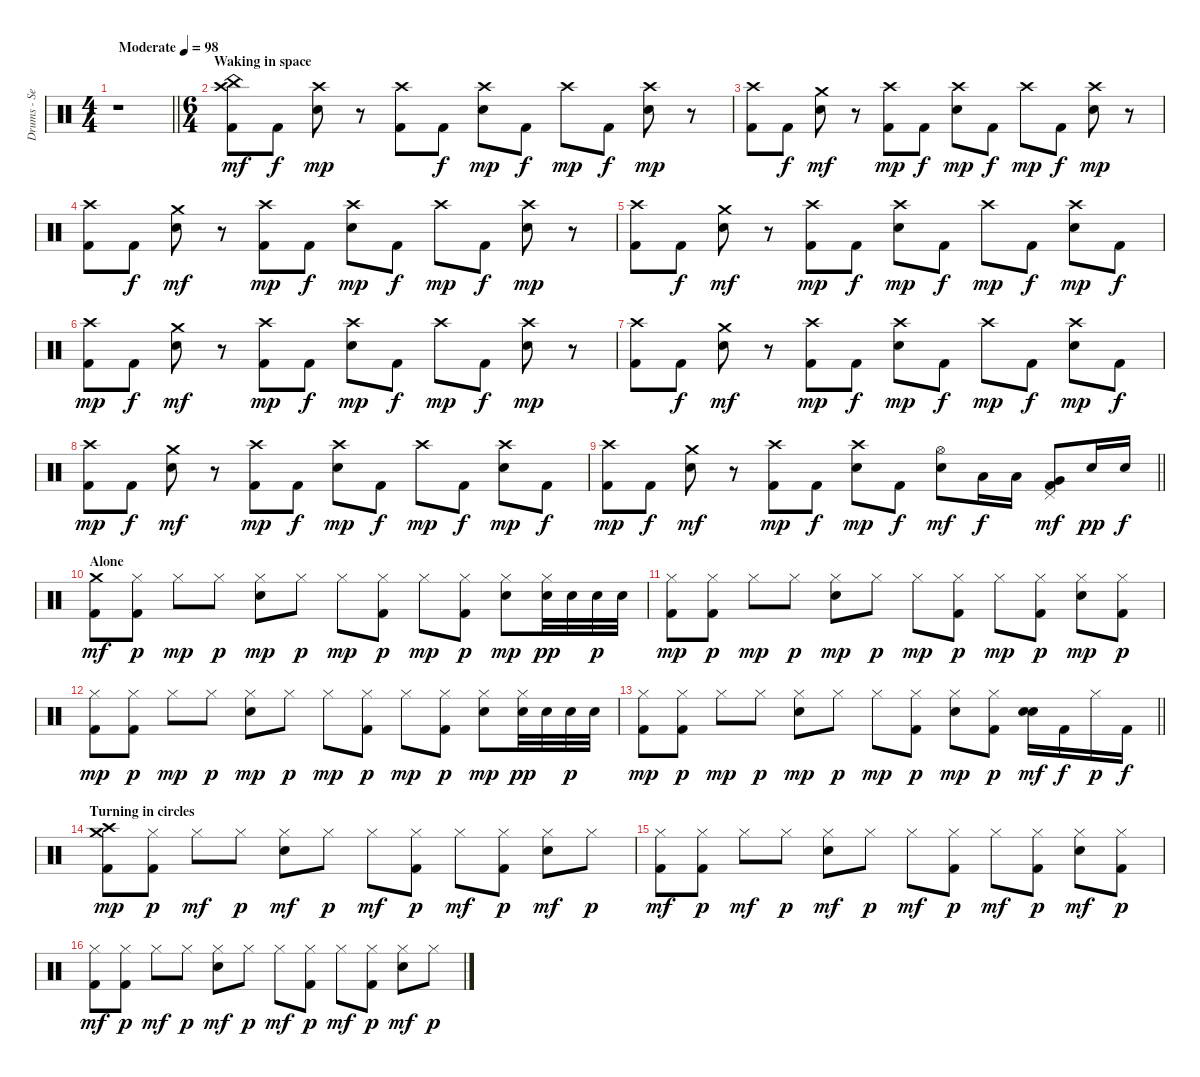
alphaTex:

\track ("Drums - Sean Kinney" "Drums - Se") {instrument percussion}
\staff {score}
\articulation defaults
\ts (4 4)
\tempo (98 "Moderate")
\clef neutral
\barLineRight lightlight
\ks c
r.1{dy mf} |
\ts (6 4)
\section ("" "Waking in space")
("China (hit)" "Crash high (hit)" "Kick (hit) 2").8 "Kick (hit) 2".8{dy f} ("Crash high (hit)" "Snare (hit) 2").8{dy mp} r.8 ("Crash high (hit)" "Kick (hit) 2").8 "Kick (hit) 2".8{dy f} ("Crash high (hit)" "Snare (hit) 2").8{dy mp} "Kick (hit) 2".8{dy f} "Crash high (hit)".8{dy mp} "Kick (hit) 2".8{dy f} ("Crash high (hit)" "Snare (hit) 2").8{dy mp} r.8 |
("Crash high (hit)" "Kick (hit) 2").8 "Kick (hit) 2".8{dy f} ("Crash medium (hit)" "Snare (hit) 2").8{dy mf} r.8 ("Crash high (hit)" "Kick (hit) 2").8{dy mp} "Kick (hit) 2".8{dy f} ("Crash high (hit)" "Snare (hit) 2").8{dy mp} "Kick (hit) 2".8{dy f} "Crash high (hit)".8{dy mp} "Kick (hit) 2".8{dy f} ("Crash high (hit)" "Snare (hit) 2").8{dy mp} r.8 |
("Crash high (hit)" "Kick (hit) 2").8 "Kick (hit) 2".8{dy f} ("Crash medium (hit)" "Snare (hit) 2").8{dy mf} r.8 ("Crash high (hit)" "Kick (hit) 2").8{dy mp} "Kick (hit) 2".8{dy f} ("Crash high (hit)" "Snare (hit) 2").8{dy mp} "Kick (hit) 2".8{dy f} "Crash high (hit)".8{dy mp} "Kick (hit) 2".8{dy f} ("Crash high (hit)" "Snare (hit) 2").8{dy mp} r.8 |
("Crash high (hit)" "Kick (hit) 2").8 "Kick (hit) 2".8{dy f} ("Crash medium (hit)" "Snare (hit) 2").8{dy mf} r.8 ("Crash high (hit)" "Kick (hit) 2").8{dy mp} "Kick (hit) 2".8{dy f} ("Crash high (hit)" "Snare (hit) 2").8{dy mp} "Kick (hit) 2".8{dy f} "Crash high (hit)".8{dy mp} "Kick (hit) 2".8{dy f} ("Crash high (hit)" "Snare (hit) 2").8{dy mp} "Kick (hit) 2".8{dy f} |
("Crash high (hit)" "Kick (hit) 2").8{dy mp} "Kick (hit) 2".8{dy f} ("Crash medium (hit)" "Snare (hit) 2").8{dy mf} r.8 ("Crash high (hit)" "Kick (hit) 2").8{dy mp} "Kick (hit) 2".8{dy f} ("Crash high (hit)" "Snare (hit) 2").8{dy mp} "Kick (hit) 2".8{dy f} "Crash high (hit)".8{dy mp} "Kick (hit) 2".8{dy f} ("Crash high (hit)" "Snare (hit) 2").8{dy mp} r.8 |
("Crash high (hit)" "Kick (hit) 2").8 "Kick (hit) 2".8{dy f} ("Crash medium (hit)" "Snare (hit) 2").8{dy mf} r.8 ("Crash high (hit)" "Kick (hit) 2").8{dy mp} "Kick (hit) 2".8{dy f} ("Crash high (hit)" "Snare (hit) 2").8{dy mp} "Kick (hit) 2".8{dy f} "Crash high (hit)".8{dy mp} "Kick (hit) 2".8{dy f} ("Crash high (hit)" "Snare (hit) 2").8{dy mp} "Kick (hit) 2".8{dy f} |
("Crash high (hit)" "Kick (hit) 2").8{dy mp} "Kick (hit) 2".8{dy f} ("Crash medium (hit)" "Snare (hit) 2").8{dy mf} r.8 ("Crash high (hit)" "Kick (hit) 2").8{dy mp} "Kick (hit) 2".8{dy f} ("Crash high (hit)" "Snare (hit) 2").8{dy mp} "Kick (hit) 2".8{dy f} "Crash high (hit)".8{dy mp} "Kick (hit) 2".8{dy f} ("Crash high (hit)" "Snare (hit) 2").8{dy mp} "Kick (hit) 2".8{dy f} |
\barLineRight lightlight
("Crash high (hit)" "Kick (hit) 2").8{dy mp} "Kick (hit) 2".8{dy f} ("Crash medium (hit)" "Snare (hit) 2").8{dy mf} r.8 ("Crash high (hit)" "Kick (hit) 2").8{dy mp} "Kick (hit) 2".8{dy f} ("Crash high (hit)" "Snare (hit) 2").8{dy mp} "Kick (hit) 2".8{dy f} ("Hi-Hat (open)" "Snare (hit) 2").8{dy mf} "Low Tom (hit)".16{dy f} "Low Tom (hit)".16 ("Pedal Hi-Hat (hit)" "Very Low Tom (hit)" "Kick (hit) 2").8{dy mf} "Snare (hit) 2".16{dy pp} "Snare (hit) 2".16{dy f} |
\section ("" "Alone")
("Crash medium (hit)" "Kick (hit) 2").8{dy mf} ("Hi-Hat (closed)" "Kick (hit) 2").8{dy p} "Hi-Hat (closed)".8{dy mp} "Hi-Hat (closed)".8{dy p} ("Hi-Hat (closed)" "Snare (hit) 2").8{dy mp} "Hi-Hat (closed)".8{dy p} "Hi-Hat (closed)".8{dy mp} ("Hi-Hat (closed)" "Kick (hit) 2").8{dy p} "Hi-Hat (closed)".8{dy mp} ("Hi-Hat (closed)" "Kick (hit) 2").8{dy p} ("Hi-Hat (closed)" "Snare (hit) 2").8{dy mp} ("Hi-Hat (closed)" "Snare (hit) 2").32{dy pp} "Snare (hit) 2".32 "Snare (hit) 2".32{dy p} "Snare (hit) 2".32 |
("Hi-Hat (closed)" "Kick (hit) 2").8{dy mp} ("Hi-Hat (closed)" "Kick (hit) 2").8{dy p} "Hi-Hat (closed)".8{dy mp} "Hi-Hat (closed)".8{dy p} ("Hi-Hat (closed)" "Snare (hit) 2").8{dy mp} "Hi-Hat (closed)".8{dy p} "Hi-Hat (closed)".8{dy mp} ("Hi-Hat (closed)" "Kick (hit) 2").8{dy p} "Hi-Hat (closed)".8{dy mp} ("Hi-Hat (closed)" "Kick (hit) 2").8{dy p} ("Hi-Hat (closed)" "Snare (hit) 2").8{dy mp} ("Hi-Hat (closed)" "Kick (hit) 2").8{dy p} |
("Hi-Hat (closed)" "Kick (hit) 2").8{dy mp} ("Hi-Hat (closed)" "Kick (hit) 2").8{dy p} "Hi-Hat (closed)".8{dy mp} "Hi-Hat (closed)".8{dy p} ("Hi-Hat (closed)" "Snare (hit) 2").8{dy mp} "Hi-Hat (closed)".8{dy p} "Hi-Hat (closed)".8{dy mp} ("Hi-Hat (closed)" "Kick (hit) 2").8{dy p} "Hi-Hat (closed)".8{dy mp} ("Hi-Hat (closed)" "Kick (hit) 2").8{dy p} ("Hi-Hat (closed)" "Snare (hit) 2").8{dy mp} ("Hi-Hat (closed)" "Snare (hit) 2").32{dy pp} "Snare (hit) 2".32 "Snare (hit) 2".32{dy p} "Snare (hit) 2".32 |
\barLineRight lightlight
("Hi-Hat (closed)" "Kick (hit) 2").8{dy mp} ("Hi-Hat (closed)" "Kick (hit) 2").8{dy p} "Hi-Hat (closed)".8{dy mp} "Hi-Hat (closed)".8{dy p} ("Hi-Hat (closed)" "Snare (hit) 2").8{dy mp} "Hi-Hat (closed)".8{dy p} "Hi-Hat (closed)".8{dy mp} ("Hi-Hat (closed)" "Kick (hit) 2").8{dy p} ("Hi-Hat (closed)" "Snare (hit) 2").8{dy mp} ("Hi-Hat (closed)" "Kick (hit) 2").8{dy p} ("Electric Snare (hit)" "Snare (hit) 2").16{dy mf} "Kick (hit) 2".16{dy f} "Hi-Hat (closed)".16{dy p} "Kick (hit) 2".16{dy f} |
\section ("" "Turning in circles")
("Crash medium (hit)" "Crash high (hit)" "Kick (hit) 2").8{dy mp} ("Hi-Hat (closed)" "Kick (hit) 2").8{dy p} "Hi-Hat (closed)".8{dy mf} "Hi-Hat (closed)".8{dy p} ("Hi-Hat (closed)" "Snare (hit) 2").8{dy mf} "Hi-Hat (closed)".8{dy p} "Hi-Hat (closed)".8{dy mf} ("Hi-Hat (closed)" "Kick (hit) 2").8{dy p} "Hi-Hat (closed)".8{dy mf} ("Hi-Hat (closed)" "Kick (hit) 2").8{dy p} ("Hi-Hat (closed)" "Snare (hit) 2").8{dy mf} "Hi-Hat (closed)".8{dy p} |
("Hi-Hat (closed)" "Kick (hit) 2").8{dy mf} ("Hi-Hat (closed)" "Kick (hit) 2").8{dy p} "Hi-Hat (closed)".8{dy mf} "Hi-Hat (closed)".8{dy p} ("Hi-Hat (closed)" "Snare (hit) 2").8{dy mf} "Hi-Hat (closed)".8{dy p} "Hi-Hat (closed)".8{dy mf} ("Hi-Hat (closed)" "Kick (hit) 2").8{dy p} "Hi-Hat (closed)".8{dy mf} ("Hi-Hat (closed)" "Kick (hit) 2").8{dy p} ("Hi-Hat (closed)" "Snare (hit) 2").8{dy mf} ("Hi-Hat (closed)" "Kick (hit) 2").8{dy p} |
("Hi-Hat (closed)" "Kick (hit) 2").8{dy mf} ("Hi-Hat (closed)" "Kick (hit) 2").8{dy p} "Hi-Hat (closed)".8{dy mf} "Hi-Hat (closed)".8{dy p} ("Hi-Hat (closed)" "Snare (hit) 2").8{dy mf} "Hi-Hat (closed)".8{dy p} "Hi-Hat (closed)".8{dy mf} ("Hi-Hat (closed)" "Kick (hit) 2").8{dy p} "Hi-Hat (closed)".8{dy mf} ("Hi-Hat (closed)" "Kick (hit) 2").8{dy p} ("Hi-Hat (closed)" "Snare (hit) 2").8{dy mf} "Hi-Hat (closed)".8{dy p}
